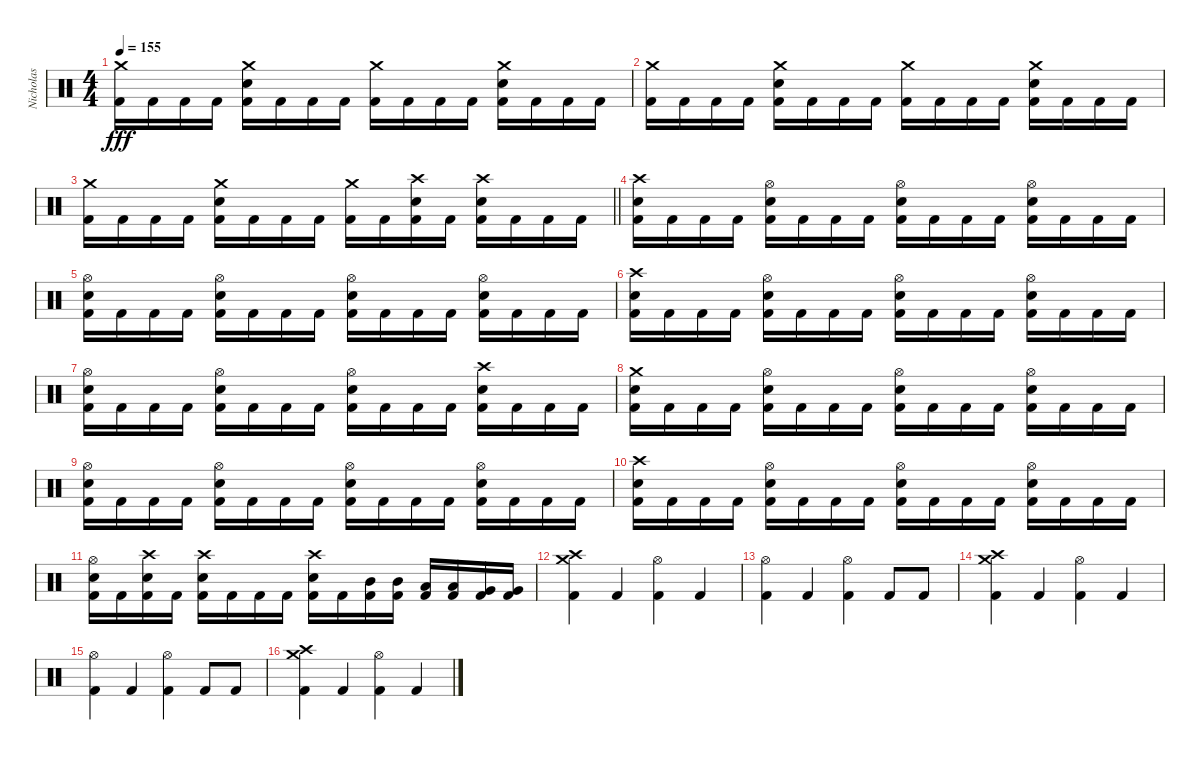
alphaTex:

\track ("Nicholas" "Nicholas") {instrument percussion}
\staff {score}
\articulation defaults
\ts (4 4)
\tempo 155
\clef neutral
\ks c
("Crash medium (hit)" "Kick (hit) 2").16{dy fff} "Kick (hit) 2".16 "Kick (hit) 2".16 "Kick (hit) 2".16 ("Crash medium (hit)" "Electric Snare (hit)" "Kick (hit) 2").16 "Kick (hit) 2".16 "Kick (hit) 2".16 "Kick (hit) 2".16 ("Crash medium (hit)" "Kick (hit) 2").16 "Kick (hit) 2".16 "Kick (hit) 2".16 "Kick (hit) 2".16 ("Crash medium (hit)" "Electric Snare (hit)" "Kick (hit) 2").16 "Kick (hit) 2".16 "Kick (hit) 2".16 "Kick (hit) 2".16 |
("Crash medium (hit)" "Kick (hit) 2").16 "Kick (hit) 2".16 "Kick (hit) 2".16 "Kick (hit) 2".16 ("Crash medium (hit)" "Electric Snare (hit)" "Kick (hit) 2").16 "Kick (hit) 2".16 "Kick (hit) 2".16 "Kick (hit) 2".16 ("Crash medium (hit)" "Kick (hit) 2").16 "Kick (hit) 2".16 "Kick (hit) 2".16 "Kick (hit) 2".16 ("Crash medium (hit)" "Electric Snare (hit)" "Kick (hit) 2").16 "Kick (hit) 2".16 "Kick (hit) 2".16 "Kick (hit) 2".16 |
\barLineRight lightlight
("Crash medium (hit)" "Kick (hit) 2").16 "Kick (hit) 2".16 "Kick (hit) 2".16 "Kick (hit) 2".16 ("Crash medium (hit)" "Electric Snare (hit)" "Kick (hit) 2").16 "Kick (hit) 2".16 "Kick (hit) 2".16 "Kick (hit) 2".16 ("Crash medium (hit)" "Kick (hit) 2").16 "Kick (hit) 2".16 ("Crash high (hit)" "Electric Snare (hit)" "Kick (hit) 2").16 "Kick (hit) 2".16 ("Crash high (hit)" "Electric Snare (hit)" "Kick (hit) 2").16 "Kick (hit) 2".16 "Kick (hit) 2".16 "Kick (hit) 2".16 |
("Crash high (hit)" "Electric Snare (hit)" "Kick (hit) 2").16 "Kick (hit) 2".16 "Kick (hit) 2".16 "Kick (hit) 2".16 ("Hi-Hat (open)" "Electric Snare (hit)" "Kick (hit) 2").16 "Kick (hit) 2".16 "Kick (hit) 2".16 "Kick (hit) 2".16 ("Hi-Hat (open)" "Electric Snare (hit)" "Kick (hit) 2").16 "Kick (hit) 2".16 "Kick (hit) 2".16 "Kick (hit) 2".16 ("Hi-Hat (open)" "Electric Snare (hit)" "Kick (hit) 2").16 "Kick (hit) 2".16 "Kick (hit) 2".16 "Kick (hit) 2".16 |
("Hi-Hat (open)" "Electric Snare (hit)" "Kick (hit) 2").16 "Kick (hit) 2".16 "Kick (hit) 2".16 "Kick (hit) 2".16 ("Hi-Hat (open)" "Electric Snare (hit)" "Kick (hit) 2").16 "Kick (hit) 2".16 "Kick (hit) 2".16 "Kick (hit) 2".16 ("Hi-Hat (open)" "Electric Snare (hit)" "Kick (hit) 2").16 "Kick (hit) 2".16 "Kick (hit) 2".16 "Kick (hit) 2".16 ("Hi-Hat (open)" "Electric Snare (hit)" "Kick (hit) 2").16 "Kick (hit) 2".16 "Kick (hit) 2".16 "Kick (hit) 2".16 |
("Crash high (hit)" "Electric Snare (hit)" "Kick (hit) 2").16 "Kick (hit) 2".16 "Kick (hit) 2".16 "Kick (hit) 2".16 ("Hi-Hat (open)" "Electric Snare (hit)" "Kick (hit) 2").16 "Kick (hit) 2".16 "Kick (hit) 2".16 "Kick (hit) 2".16 ("Hi-Hat (open)" "Electric Snare (hit)" "Kick (hit) 2").16 "Kick (hit) 2".16 "Kick (hit) 2".16 "Kick (hit) 2".16 ("Hi-Hat (open)" "Electric Snare (hit)" "Kick (hit) 2").16 "Kick (hit) 2".16 "Kick (hit) 2".16 "Kick (hit) 2".16 |
("Hi-Hat (open)" "Electric Snare (hit)" "Kick (hit) 2").16 "Kick (hit) 2".16 "Kick (hit) 2".16 "Kick (hit) 2".16 ("Hi-Hat (open)" "Electric Snare (hit)" "Kick (hit) 2").16 "Kick (hit) 2".16 "Kick (hit) 2".16 "Kick (hit) 2".16 ("Hi-Hat (open)" "Electric Snare (hit)" "Kick (hit) 2").16 "Kick (hit) 2".16 "Kick (hit) 2".16 "Kick (hit) 2".16 ("Crash high (hit)" "Electric Snare (hit)" "Kick (hit) 2").16 "Kick (hit) 2".16 "Kick (hit) 2".16 "Kick (hit) 2".16 |
("Crash medium (hit)" "Electric Snare (hit)" "Kick (hit) 2").16 "Kick (hit) 2".16 "Kick (hit) 2".16 "Kick (hit) 2".16 ("Hi-Hat (open)" "Electric Snare (hit)" "Kick (hit) 2").16 "Kick (hit) 2".16 "Kick (hit) 2".16 "Kick (hit) 2".16 ("Hi-Hat (open)" "Electric Snare (hit)" "Kick (hit) 2").16 "Kick (hit) 2".16 "Kick (hit) 2".16 "Kick (hit) 2".16 ("Hi-Hat (open)" "Electric Snare (hit)" "Kick (hit) 2").16 "Kick (hit) 2".16 "Kick (hit) 2".16 "Kick (hit) 2".16 |
("Hi-Hat (open)" "Electric Snare (hit)" "Kick (hit) 2").16 "Kick (hit) 2".16 "Kick (hit) 2".16 "Kick (hit) 2".16 ("Hi-Hat (open)" "Electric Snare (hit)" "Kick (hit) 2").16 "Kick (hit) 2".16 "Kick (hit) 2".16 "Kick (hit) 2".16 ("Hi-Hat (open)" "Electric Snare (hit)" "Kick (hit) 2").16 "Kick (hit) 2".16 "Kick (hit) 2".16 "Kick (hit) 2".16 ("Hi-Hat (open)" "Electric Snare (hit)" "Kick (hit) 2").16 "Kick (hit) 2".16 "Kick (hit) 2".16 "Kick (hit) 2".16 |
("Crash high (hit)" "Electric Snare (hit)" "Kick (hit) 2").16 "Kick (hit) 2".16 "Kick (hit) 2".16 "Kick (hit) 2".16 ("Hi-Hat (open)" "Electric Snare (hit)" "Kick (hit) 2").16 "Kick (hit) 2".16 "Kick (hit) 2".16 "Kick (hit) 2".16 ("Hi-Hat (open)" "Electric Snare (hit)" "Kick (hit) 2").16 "Kick (hit) 2".16 "Kick (hit) 2".16 "Kick (hit) 2".16 ("Hi-Hat (open)" "Electric Snare (hit)" "Kick (hit) 2").16 "Kick (hit) 2".16 "Kick (hit) 2".16 "Kick (hit) 2".16 |
("Hi-Hat (open)" "Electric Snare (hit)" "Kick (hit) 2").16 "Kick (hit) 2".16 ("Crash high (hit)" "Electric Snare (hit)" "Kick (hit) 2").16 "Kick (hit) 2".16 ("Crash high (hit)" "Electric Snare (hit)" "Kick (hit) 2").16 "Kick (hit) 2".16 "Kick (hit) 2".16 "Kick (hit) 2".16 ("Crash high (hit)" "Electric Snare (hit)" "Kick (hit) 2").16 "Kick (hit) 2".16 ("Mid Tom (hit)" "Kick (hit) 2").16 ("Mid Tom (hit)" "Kick (hit) 2").16 ("Low Tom (hit)" "Kick (hit) 2").16 ("Low Tom (hit)" "Kick (hit) 2").16 ("Very Low Tom (hit)" "Kick (hit) 2").16 ("Very Low Tom (hit)" "Kick (hit) 2").16 |
("Crash medium (hit)" "Crash high (hit)" "Kick (hit) 2").4 "Kick (hit) 2".4 ("Hi-Hat (open)" "Kick (hit) 2").4 "Kick (hit) 2".4 |
("Hi-Hat (open)" "Kick (hit) 2").4 "Kick (hit) 2".4 ("Hi-Hat (open)" "Kick (hit) 2").4 "Kick (hit) 2".8 "Kick (hit) 2".8 |
("Crash medium (hit)" "Crash high (hit)" "Kick (hit) 2").4 "Kick (hit) 2".4 ("Hi-Hat (open)" "Kick (hit) 2").4 "Kick (hit) 2".4 |
("Hi-Hat (open)" "Kick (hit) 2").4 "Kick (hit) 2".4 ("Hi-Hat (open)" "Kick (hit) 2").4 "Kick (hit) 2".8 "Kick (hit) 2".8 |
("Crash medium (hit)" "Crash high (hit)" "Kick (hit) 2").4 "Kick (hit) 2".4 ("Hi-Hat (open)" "Kick (hit) 2").4 "Kick (hit) 2".4
